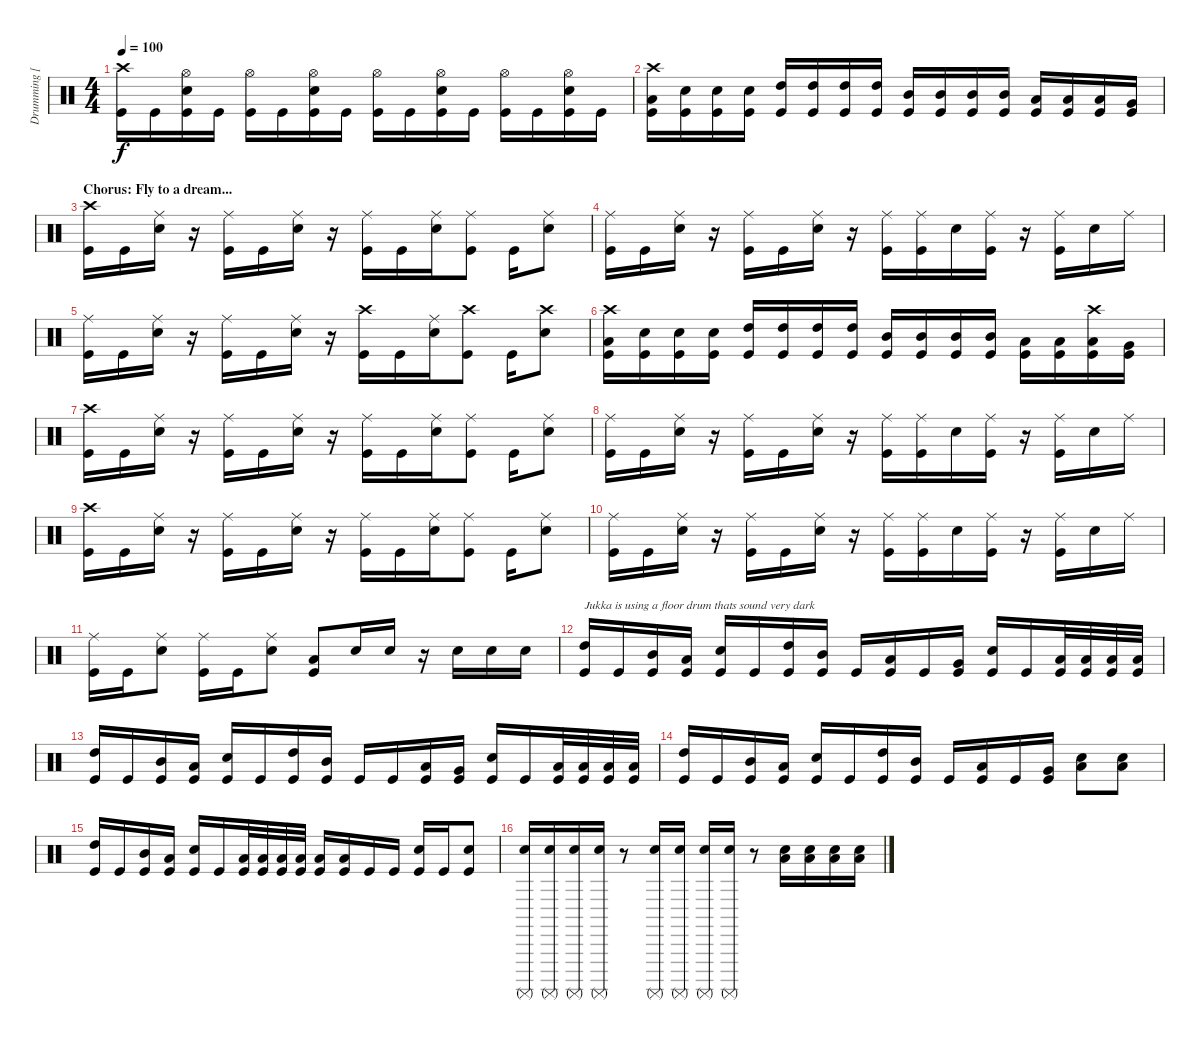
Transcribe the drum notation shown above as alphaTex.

\track ("Drumming [Jukka]" "Drumming [") {instrument percussion}
\staff {score}
\articulation defaults
\ts (4 4)
\tempo 100
\clef neutral
\ks c
("Crash high (hit)" "Kick (hit)").16{dy f} "Kick (hit)".16 ("Hi-Hat (open)" "Electric Snare (hit)" "Kick (hit)").16 "Kick (hit)".16 ("Hi-Hat (open)" "Kick (hit)").16 "Kick (hit)".16 ("Hi-Hat (open)" "Electric Snare (hit)" "Kick (hit)").16 "Kick (hit)".16 ("Hi-Hat (open)" "Kick (hit)").16 "Kick (hit)".16 ("Hi-Hat (open)" "Electric Snare (hit)" "Kick (hit)").16 "Kick (hit)".16 ("Hi-Hat (open)" "Kick (hit)").16 "Kick (hit)".16 ("Hi-Hat (open)" "Electric Snare (hit)" "Kick (hit)").16 "Kick (hit)".16 |
("Crash high (hit)" "Low Tom (hit)" "Kick (hit)").16 ("Electric Snare (hit)" "Kick (hit)").16 ("Electric Snare (hit)" "Kick (hit)").16 ("Electric Snare (hit)" "Kick (hit)").16 ("High Tom (hit)" "Kick (hit)").16 ("High Tom (hit)" "Kick (hit)").16 ("High Tom (hit)" "Kick (hit)").16 ("High Tom (hit)" "Kick (hit)").16 ("Mid Tom (hit)" "Kick (hit)").16 ("Mid Tom (hit)" "Kick (hit)").16 ("Mid Tom (hit)" "Kick (hit)").16 ("Mid Tom (hit)" "Kick (hit)").16 ("Low Tom (hit)" "Kick (hit)").16 ("Low Tom (hit)" "Kick (hit)").16 ("Low Tom (hit)" "Kick (hit)").16 ("Very Low Tom (hit)" "Kick (hit)").16 |
\section ("" "Chorus: Fly to a dream...")
("Crash high (hit)" "Kick (hit)").16 "Kick (hit)".16 ("Ride (middle)" "Electric Snare (hit)").16 r.16 ("Ride (middle)" "Kick (hit)").16 "Kick (hit)".16 ("Ride (middle)" "Electric Snare (hit)").16 r.16 ("Ride (middle)" "Kick (hit)").16 "Kick (hit)".16 ("Ride (middle)" "Electric Snare (hit)").16 ("Ride (middle)" "Kick (hit)").8 "Kick (hit)".16 ("Ride (middle)" "Electric Snare (hit)").8 |
("Ride (middle)" "Kick (hit)").16 "Kick (hit)".16 ("Ride (middle)" "Electric Snare (hit)").16 r.16 ("Ride (middle)" "Kick (hit)").16 "Kick (hit)".16 ("Ride (middle)" "Electric Snare (hit)").16 r.16 ("Ride (middle)" "Kick (hit)").16 ("Ride (middle)" "Kick (hit)").16 "Electric Snare (hit)".16 ("Ride (middle)" "Kick (hit)").16 r.16 ("Ride (middle)" "Kick (hit)").16 "Electric Snare (hit)".16 "Ride (middle)".16 |
("Ride (middle)" "Kick (hit)").16 "Kick (hit)".16 ("Ride (middle)" "Electric Snare (hit)").16 r.16 ("Ride (middle)" "Kick (hit)").16 "Kick (hit)".16 ("Ride (middle)" "Electric Snare (hit)").16 r.16 ("Crash high (hit)" "Kick (hit)").16 "Kick (hit)".16 ("Ride (middle)" "Electric Snare (hit)").16 ("Crash high (hit)" "Kick (hit)").8 "Kick (hit)".16 ("Crash high (hit)" "Electric Snare (hit)").8 |
("Crash high (hit)" "Low Tom (hit)" "Kick (hit)").16 ("Electric Snare (hit)" "Kick (hit)").16 ("Electric Snare (hit)" "Kick (hit)").16 ("Electric Snare (hit)" "Kick (hit)").16 ("High Tom (hit)" "Kick (hit)").16 ("High Tom (hit)" "Kick (hit)").16 ("High Tom (hit)" "Kick (hit)").16 ("High Tom (hit)" "Kick (hit)").16 ("Mid Tom (hit)" "Kick (hit)").16 ("Mid Tom (hit)" "Kick (hit)").16 ("Mid Tom (hit)" "Kick (hit)").16 ("Mid Tom (hit)" "Kick (hit)").16 ("Low Tom (hit)" "Kick (hit)").16 ("Low Tom (hit)" "Kick (hit)").16 ("Crash high (hit)" "Low Tom (hit)" "Kick (hit)").16 ("Very Low Tom (hit)" "Kick (hit)").16 |
("Crash high (hit)" "Kick (hit)").16 "Kick (hit)".16 ("Ride (middle)" "Electric Snare (hit)").16 r.16 ("Ride (middle)" "Kick (hit)").16 "Kick (hit)".16 ("Ride (middle)" "Electric Snare (hit)").16 r.16 ("Ride (middle)" "Kick (hit)").16 "Kick (hit)".16 ("Ride (middle)" "Electric Snare (hit)").16 ("Ride (middle)" "Kick (hit)").8 "Kick (hit)".16 ("Ride (middle)" "Electric Snare (hit)").8 |
("Ride (middle)" "Kick (hit)").16 "Kick (hit)".16 ("Ride (middle)" "Electric Snare (hit)").16 r.16 ("Ride (middle)" "Kick (hit)").16 "Kick (hit)".16 ("Ride (middle)" "Electric Snare (hit)").16 r.16 ("Ride (middle)" "Kick (hit)").16 ("Ride (middle)" "Kick (hit)").16 "Electric Snare (hit)".16 ("Ride (middle)" "Kick (hit)").16 r.16 ("Ride (middle)" "Kick (hit)").16 "Electric Snare (hit)".16 "Ride (middle)".16 |
("Crash high (hit)" "Kick (hit)").16 "Kick (hit)".16 ("Ride (middle)" "Electric Snare (hit)").16 r.16 ("Ride (middle)" "Kick (hit)").16 "Kick (hit)".16 ("Ride (middle)" "Electric Snare (hit)").16 r.16 ("Ride (middle)" "Kick (hit)").16 "Kick (hit)".16 ("Ride (middle)" "Electric Snare (hit)").16 ("Ride (middle)" "Kick (hit)").8 "Kick (hit)".16 ("Ride (middle)" "Electric Snare (hit)").8 |
("Ride (middle)" "Kick (hit)").16 "Kick (hit)".16 ("Ride (middle)" "Electric Snare (hit)").16 r.16 ("Ride (middle)" "Kick (hit)").16 "Kick (hit)".16 ("Ride (middle)" "Electric Snare (hit)").16 r.16 ("Ride (middle)" "Kick (hit)").16 ("Ride (middle)" "Kick (hit)").16 "Electric Snare (hit)".16 ("Ride (middle)" "Kick (hit)").16 r.16 ("Ride (middle)" "Kick (hit)").16 "Electric Snare (hit)".16 "Ride (middle)".16 |
("Ride (middle)" "Kick (hit)").16 "Kick (hit)".16 ("Ride (middle)" "Electric Snare (hit)").8 ("Ride (middle)" "Kick (hit)").16 "Kick (hit)".16 ("Ride (middle)" "Electric Snare (hit)").8 ("Low Floor Tom (hit)" "Kick (hit)").8 "Electric Snare (hit)".16 "Electric Snare (hit)".16 r.16 "Electric Snare (hit)".16 "Electric Snare (hit)".16 "Electric Snare (hit)".16 |
("High Tom (hit)" "Kick (hit)").16{txt "Jukka is using a floor drum thats sound very dark"} "Kick (hit)".16 ("Mid Tom (hit)" "Kick (hit)").16 ("Low Tom (hit)" "Kick (hit)").16 ("Electric Snare (hit)" "Kick (hit)").16 "Kick (hit)".16 ("High Tom (hit)" "Kick (hit)").16 ("Mid Tom (hit)" "Kick (hit)").16 "Kick (hit)".16 ("Low Tom (hit)" "Kick (hit)").16 "Kick (hit)".16 ("Very Low Tom (hit)" "Kick (hit)").16 ("Electric Snare (hit)" "Kick (hit)").16 "Kick (hit)".16 ("Low Floor Tom (hit)" "Kick (hit)").32 ("Low Floor Tom (hit)" "Kick (hit)").32 ("Low Floor Tom (hit)" "Kick (hit)").32 ("Low Floor Tom (hit)" "Kick (hit)").32 |
("High Tom (hit)" "Kick (hit)").16 "Kick (hit)".16 ("Mid Tom (hit)" "Kick (hit)").16 ("Low Tom (hit)" "Kick (hit)").16 ("Electric Snare (hit)" "Kick (hit)").16 "Kick (hit)".16 ("High Tom (hit)" "Kick (hit)").16 ("Mid Tom (hit)" "Kick (hit)").16 "Kick (hit)".16 "Kick (hit)".16 ("Low Tom (hit)" "Kick (hit)").16 ("Very Low Tom (hit)" "Kick (hit)").16 ("Electric Snare (hit)" "Kick (hit)").16 "Kick (hit)".16 ("Low Floor Tom (hit)" "Kick (hit)").32 ("Low Floor Tom (hit)" "Kick (hit)").32 ("Low Floor Tom (hit)" "Kick (hit)").32 ("Low Floor Tom (hit)" "Kick (hit)").32 |
("High Tom (hit)" "Kick (hit)").16 "Kick (hit)".16 ("Mid Tom (hit)" "Kick (hit)").16 ("Low Tom (hit)" "Kick (hit)").16 ("Electric Snare (hit)" "Kick (hit)").16 "Kick (hit)".16 ("High Tom (hit)" "Kick (hit)").16 ("Mid Tom (hit)" "Kick (hit)").16 "Kick (hit)".16 ("Low Tom (hit)" "Kick (hit)").16 "Kick (hit)".16 ("Very Low Tom (hit)" "Kick (hit)").16 ("Electric Snare (hit)" "Low Floor Tom (hit)").8 ("Electric Snare (hit)" "Low Floor Tom (hit)").8 |
("High Tom (hit)" "Kick (hit)").16 "Kick (hit)".16 ("Mid Tom (hit)" "Kick (hit)").16 ("Low Tom (hit)" "Kick (hit)").16 ("Electric Snare (hit)" "Kick (hit)").16 "Kick (hit)".16 ("Low Floor Tom (hit)" "Kick (hit)").32 ("Low Floor Tom (hit)" "Kick (hit)").32 ("Low Floor Tom (hit)" "Kick (hit)").32 ("Low Floor Tom (hit)" "Kick (hit)").32 ("Low Floor Tom (hit)" "Kick (hit)").16 ("Low Tom (hit)" "Kick (hit)").16 "Kick (hit)".16 "Kick (hit)".16 ("Electric Snare (hit)" "Kick (hit)").16 "Kick (hit)".16 ("Electric Snare (hit)" "Kick (hit)").8 |
("Surdo (mute)" "Electric Snare (hit)").16 ("Surdo (mute)" "Electric Snare (hit)").16 ("Surdo (mute)" "Electric Snare (hit)").16 ("Surdo (mute)" "Electric Snare (hit)").16 r.8 ("Surdo (mute)" "Electric Snare (hit)").16 ("Surdo (mute)" "Electric Snare (hit)").16 ("Surdo (mute)" "Electric Snare (hit)").16 ("Surdo (mute)" "Electric Snare (hit)").16 r.8 ("Low Floor Tom (hit)" "Electric Snare (hit)").16 ("Low Floor Tom (hit)" "Electric Snare (hit)").16 ("Low Floor Tom (hit)" "Electric Snare (hit)").16 ("Low Floor Tom (hit)" "Electric Snare (hit)").16
